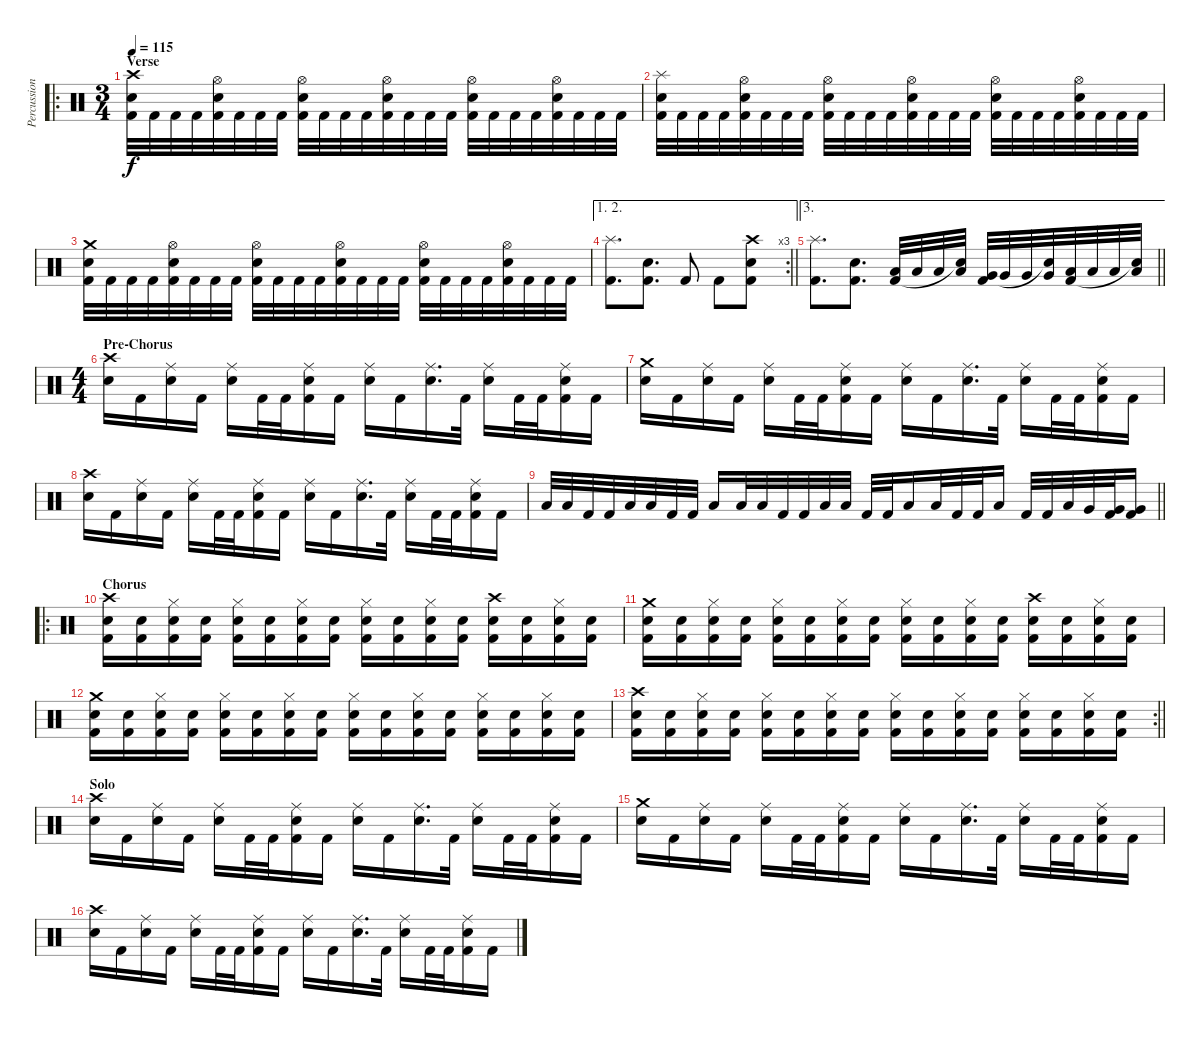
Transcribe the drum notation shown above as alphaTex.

\track ("Percussion" "Percussion") {instrument percussion}
\staff {score}
\articulation defaults
\ro
\ts (3 4)
\section ("" "Verse")
\tempo 115
\clef neutral
\ks c
("Crash high (hit)" "Snare (hit) 2" "Kick (hit) 2").32{dy f} "Kick (hit) 2".32 "Kick (hit) 2".32 "Kick (hit) 2".32 ("Hi-Hat (open)" "Snare (hit) 2" "Kick (hit) 2").32 "Kick (hit) 2".32 "Kick (hit) 2".32 "Kick (hit) 2".32 ("Hi-Hat (open)" "Snare (hit) 2" "Kick (hit) 2").32 "Kick (hit) 2".32 "Kick (hit) 2".32 "Kick (hit) 2".32 ("Hi-Hat (open)" "Snare (hit) 2" "Kick (hit) 2").32 "Kick (hit) 2".32 "Kick (hit) 2".32 "Kick (hit) 2".32 ("Hi-Hat (open)" "Snare (hit) 2" "Kick (hit) 2").32 "Kick (hit) 2".32 "Kick (hit) 2".32 "Kick (hit) 2".32 ("Hi-Hat (open)" "Snare (hit) 2" "Kick (hit) 2").32 "Kick (hit) 2".32 "Kick (hit) 2".32 "Kick (hit) 2".32 |
("Splash (hit)" "Snare (hit) 2" "Kick (hit) 2").32 "Kick (hit) 2".32 "Kick (hit) 2".32 "Kick (hit) 2".32 ("Hi-Hat (open)" "Snare (hit) 2" "Kick (hit) 2").32 "Kick (hit) 2".32 "Kick (hit) 2".32 "Kick (hit) 2".32 ("Hi-Hat (open)" "Snare (hit) 2" "Kick (hit) 2").32 "Kick (hit) 2".32 "Kick (hit) 2".32 "Kick (hit) 2".32 ("Hi-Hat (open)" "Snare (hit) 2" "Kick (hit) 2").32 "Kick (hit) 2".32 "Kick (hit) 2".32 "Kick (hit) 2".32 ("Hi-Hat (open)" "Snare (hit) 2" "Kick (hit) 2").32 "Kick (hit) 2".32 "Kick (hit) 2".32 "Kick (hit) 2".32 ("Hi-Hat (open)" "Snare (hit) 2" "Kick (hit) 2").32 "Kick (hit) 2".32 "Kick (hit) 2".32 "Kick (hit) 2".32 |
("Crash medium (hit)" "Snare (hit) 2" "Kick (hit) 2").32 "Kick (hit) 2".32 "Kick (hit) 2".32 "Kick (hit) 2".32 ("Hi-Hat (open)" "Snare (hit) 2" "Kick (hit) 2").32 "Kick (hit) 2".32 "Kick (hit) 2".32 "Kick (hit) 2".32 ("Hi-Hat (open)" "Snare (hit) 2" "Kick (hit) 2").32 "Kick (hit) 2".32 "Kick (hit) 2".32 "Kick (hit) 2".32 ("Hi-Hat (open)" "Snare (hit) 2" "Kick (hit) 2").32 "Kick (hit) 2".32 "Kick (hit) 2".32 "Kick (hit) 2".32 ("Hi-Hat (open)" "Snare (hit) 2" "Kick (hit) 2").32 "Kick (hit) 2".32 "Kick (hit) 2".32 "Kick (hit) 2".32 ("Hi-Hat (open)" "Snare (hit) 2" "Kick (hit) 2").32 "Kick (hit) 2".32 "Kick (hit) 2".32 "Kick (hit) 2".32 |
\ae (1 2)
\rc 3
\barLineRight lightlight
("Splash (hit)" "Kick (hit) 2").8{d} ("Snare (hit) 2" "Kick (hit) 2").8{d} "Kick (hit) 2".8 "Kick (hit) 2".8 ("Crash high (hit)" "Snare (hit) 2" "Kick (hit) 2").8 |
\ae 3
\barLineRight lightlight
("Splash (hit)" "Kick (hit) 2").8{d} ("Snare (hit) 2" "Kick (hit) 2").8{d} ("Low Tom (hit)" "Kick (hit) 2").32 "Low Tom (hit)".32 "Low Tom (hit)".32 ("Low Tom (hit)" "Snare (hit)"{t}).32 ("Very Low Tom (hit)" "Kick (hit) 2").32 "Very Low Tom (hit)".32 "Very Low Tom (hit)".32 ("Very Low Tom (hit)" "Snare (hit)"{t}).32 ("Low Floor Tom (hit)" "Kick (hit) 2").32 "Low Floor Tom (hit)".32 "Low Floor Tom (hit)".32 ("Low Floor Tom (hit)" "Snare (hit)"{t}).32 |
\ts (4 4)
\section ("" "Pre-Chorus")
("Crash high (hit)" "Snare (hit) 2").16 "Kick (hit) 2".16 ("Ride (middle)" "Snare (hit) 2").16 "Kick (hit) 2".16 ("Ride (middle)" "Snare (hit) 2").16 "Kick (hit) 2".32 "Kick (hit) 2".32 ("Ride (middle)" "Snare (hit) 2" "Kick (hit) 2").16 "Kick (hit) 2".16 ("Ride (middle)" "Snare (hit) 2").16 "Kick (hit) 2".16 ("Ride (middle)" "Snare (hit) 2").16{d} "Kick (hit) 2".32 ("Ride (middle)" "Snare (hit) 2").16 "Kick (hit) 2".32 "Kick (hit) 2".32 ("Ride (middle)" "Snare (hit) 2" "Kick (hit) 2").16 "Kick (hit) 2".16 |
("Crash medium (hit)" "Snare (hit) 2").16 "Kick (hit) 2".16 ("Ride (middle)" "Snare (hit) 2").16 "Kick (hit) 2".16 ("Ride (middle)" "Snare (hit) 2").16 "Kick (hit) 2".32 "Kick (hit) 2".32 ("Ride (middle)" "Snare (hit) 2" "Kick (hit) 2").16 "Kick (hit) 2".16 ("Ride (middle)" "Snare (hit) 2").16 "Kick (hit) 2".16 ("Ride (middle)" "Snare (hit) 2").16{d} "Kick (hit) 2".32 ("Ride (middle)" "Snare (hit) 2").16 "Kick (hit) 2".32 "Kick (hit) 2".32 ("Ride (middle)" "Snare (hit) 2" "Kick (hit) 2").16 "Kick (hit) 2".16 |
("Crash high (hit)" "Snare (hit) 2").16 "Kick (hit) 2".16 ("Ride (middle)" "Snare (hit) 2").16 "Kick (hit) 2".16 ("Ride (middle)" "Snare (hit) 2").16 "Kick (hit) 2".32 "Kick (hit) 2".32 ("Ride (middle)" "Snare (hit) 2" "Kick (hit) 2").16 "Kick (hit) 2".16 ("Ride (middle)" "Snare (hit) 2").16 "Kick (hit) 2".16 ("Ride (middle)" "Snare (hit) 2").16{d} "Kick (hit) 2".32 ("Ride (middle)" "Snare (hit) 2").16 "Kick (hit) 2".32 "Kick (hit) 2".32 ("Ride (middle)" "Snare (hit) 2" "Kick (hit) 2").16 "Kick (hit) 2".16 |
\barLineRight lightlight "Low Tom (hit)".32 "Low Tom (hit)".32 "Kick (hit) 2".32 "Kick (hit) 2".32 "Low Tom (hit)".32 "Low Tom (hit)".32 "Kick (hit) 2".32 "Kick (hit) 2".32 "Low Tom (hit)".16 "Low Tom (hit)".32 "Low Tom (hit)".32 "Kick (hit) 2".32 "Kick (hit) 2".32 "Low Tom (hit)".32 "Low Tom (hit)".32 "Kick (hit) 2".32 "Kick (hit) 2".32 "Low Tom (hit)".16 "Low Tom (hit)".32 "Kick (hit) 2".32 "Kick (hit) 2".32 "Low Tom (hit)".16 "Kick (hit) 2".32 "Kick (hit) 2".32 "Low Tom (hit)".32 "Very Low Tom (hit)".32
("Very Low Tom (hit)" "Kick (hit) 2").32 ("Very Low Tom (hit)" "Kick (hit) 2").16 |
\ro
\section ("" "Chorus")
("Crash high (hit)" "Snare (hit) 2" "Kick (hit) 2").16 ("Snare (hit) 2" "Kick (hit) 2").16 ("Hi-Hat (closed)" "Snare (hit) 2" "Kick (hit) 2").16 ("Snare (hit) 2" "Kick (hit) 2").16 ("Hi-Hat (closed)" "Snare (hit) 2" "Kick (hit) 2").16 ("Snare (hit) 2" "Kick (hit) 2").16 ("Hi-Hat (closed)" "Snare (hit) 2" "Kick (hit) 2").16 ("Snare (hit) 2" "Kick (hit) 2").16 ("Hi-Hat (closed)" "Snare (hit) 2" "Kick (hit) 2").16 ("Snare (hit) 2" "Kick (hit) 2").16 ("Hi-Hat (closed)" "Snare (hit) 2" "Kick (hit) 2").16 ("Snare (hit) 2" "Kick (hit) 2").16 ("Crash high (hit)" "Snare (hit) 2" "Kick (hit) 2").16 ("Snare (hit) 2" "Kick (hit) 2").16 ("Hi-Hat (closed)" "Snare (hit) 2" "Kick (hit) 2").16 ("Snare (hit) 2" "Kick (hit) 2").16 |
("Crash medium (hit)" "Snare (hit) 2" "Kick (hit) 2").16 ("Snare (hit) 2" "Kick (hit) 2").16 ("Hi-Hat (closed)" "Snare (hit) 2" "Kick (hit) 2").16 ("Snare (hit) 2" "Kick (hit) 2").16 ("Hi-Hat (closed)" "Snare (hit) 2" "Kick (hit) 2").16 ("Snare (hit) 2" "Kick (hit) 2").16 ("Hi-Hat (closed)" "Snare (hit) 2" "Kick (hit) 2").16 ("Snare (hit) 2" "Kick (hit) 2").16 ("Hi-Hat (closed)" "Snare (hit) 2" "Kick (hit) 2").16 ("Snare (hit) 2" "Kick (hit) 2").16 ("Hi-Hat (closed)" "Snare (hit) 2" "Kick (hit) 2").16 ("Snare (hit) 2" "Kick (hit) 2").16 ("Crash high (hit)" "Snare (hit) 2" "Kick (hit) 2").16 ("Snare (hit) 2" "Kick (hit) 2").16 ("Hi-Hat (closed)" "Snare (hit) 2" "Kick (hit) 2").16 ("Snare (hit) 2" "Kick (hit) 2").16 |
("Crash medium (hit)" "Snare (hit) 2" "Kick (hit) 2").16 ("Snare (hit) 2" "Kick (hit) 2").16 ("Hi-Hat (closed)" "Snare (hit) 2" "Kick (hit) 2").16 ("Snare (hit) 2" "Kick (hit) 2").16 ("Hi-Hat (closed)" "Snare (hit) 2" "Kick (hit) 2").16 ("Snare (hit) 2" "Kick (hit) 2").16 ("Hi-Hat (closed)" "Snare (hit) 2" "Kick (hit) 2").16 ("Snare (hit) 2" "Kick (hit) 2").16 ("Hi-Hat (closed)" "Snare (hit) 2" "Kick (hit) 2").16 ("Snare (hit) 2" "Kick (hit) 2").16 ("Hi-Hat (closed)" "Snare (hit) 2" "Kick (hit) 2").16 ("Snare (hit) 2" "Kick (hit) 2").16 ("Hi-Hat (closed)" "Snare (hit) 2" "Kick (hit) 2").16 ("Snare (hit) 2" "Kick (hit) 2").16 ("Hi-Hat (closed)" "Snare (hit) 2" "Kick (hit) 2").16 ("Snare (hit) 2" "Kick (hit) 2").16 |
\rc 2
\barLineRight lightlight
("Crash high (hit)" "Snare (hit) 2" "Kick (hit) 2").16 ("Snare (hit) 2" "Kick (hit) 2").16 ("Hi-Hat (closed)" "Snare (hit) 2" "Kick (hit) 2").16 ("Snare (hit) 2" "Kick (hit) 2").16 ("Hi-Hat (closed)" "Snare (hit) 2" "Kick (hit) 2").16 ("Snare (hit) 2" "Kick (hit) 2").16 ("Hi-Hat (closed)" "Snare (hit) 2" "Kick (hit) 2").16 ("Snare (hit) 2" "Kick (hit) 2").16 ("Hi-Hat (closed)" "Snare (hit) 2" "Kick (hit) 2").16 ("Snare (hit) 2" "Kick (hit) 2").16 ("Hi-Hat (closed)" "Snare (hit) 2" "Kick (hit) 2").16 ("Snare (hit) 2" "Kick (hit) 2").16 ("Hi-Hat (closed)" "Snare (hit) 2" "Kick (hit) 2").16 ("Snare (hit) 2" "Kick (hit) 2").16 ("Hi-Hat (closed)" "Snare (hit) 2" "Kick (hit) 2").16 ("Snare (hit) 2" "Kick (hit) 2").16 |
\section ("" "Solo")
("Crash high (hit)" "Snare (hit) 2").16 "Kick (hit) 2".16 ("Ride (middle)" "Snare (hit) 2").16 "Kick (hit) 2".16 ("Ride (middle)" "Snare (hit) 2").16 "Kick (hit) 2".32 "Kick (hit) 2".32 ("Ride (middle)" "Snare (hit) 2" "Kick (hit) 2").16 "Kick (hit) 2".16 ("Ride (middle)" "Snare (hit) 2").16 "Kick (hit) 2".16 ("Ride (middle)" "Snare (hit) 2").16{d} "Kick (hit) 2".32 ("Ride (middle)" "Snare (hit) 2").16 "Kick (hit) 2".32 "Kick (hit) 2".32 ("Ride (middle)" "Snare (hit) 2" "Kick (hit) 2").16 "Kick (hit) 2".16 |
("Crash medium (hit)" "Snare (hit) 2").16 "Kick (hit) 2".16 ("Ride (middle)" "Snare (hit) 2").16 "Kick (hit) 2".16 ("Ride (middle)" "Snare (hit) 2").16 "Kick (hit) 2".32 "Kick (hit) 2".32 ("Ride (middle)" "Snare (hit) 2" "Kick (hit) 2").16 "Kick (hit) 2".16 ("Ride (middle)" "Snare (hit) 2").16 "Kick (hit) 2".16 ("Ride (middle)" "Snare (hit) 2").16{d} "Kick (hit) 2".32 ("Ride (middle)" "Snare (hit) 2").16 "Kick (hit) 2".32 "Kick (hit) 2".32 ("Ride (middle)" "Snare (hit) 2" "Kick (hit) 2").16 "Kick (hit) 2".16 |
("Crash high (hit)" "Snare (hit) 2").16 "Kick (hit) 2".16 ("Ride (middle)" "Snare (hit) 2").16 "Kick (hit) 2".16 ("Ride (middle)" "Snare (hit) 2").16 "Kick (hit) 2".32 "Kick (hit) 2".32 ("Ride (middle)" "Snare (hit) 2" "Kick (hit) 2").16 "Kick (hit) 2".16 ("Ride (middle)" "Snare (hit) 2").16 "Kick (hit) 2".16 ("Ride (middle)" "Snare (hit) 2").16{d} "Kick (hit) 2".32 ("Ride (middle)" "Snare (hit) 2").16 "Kick (hit) 2".32 "Kick (hit) 2".32 ("Ride (middle)" "Snare (hit) 2" "Kick (hit) 2").16 "Kick (hit) 2".16
